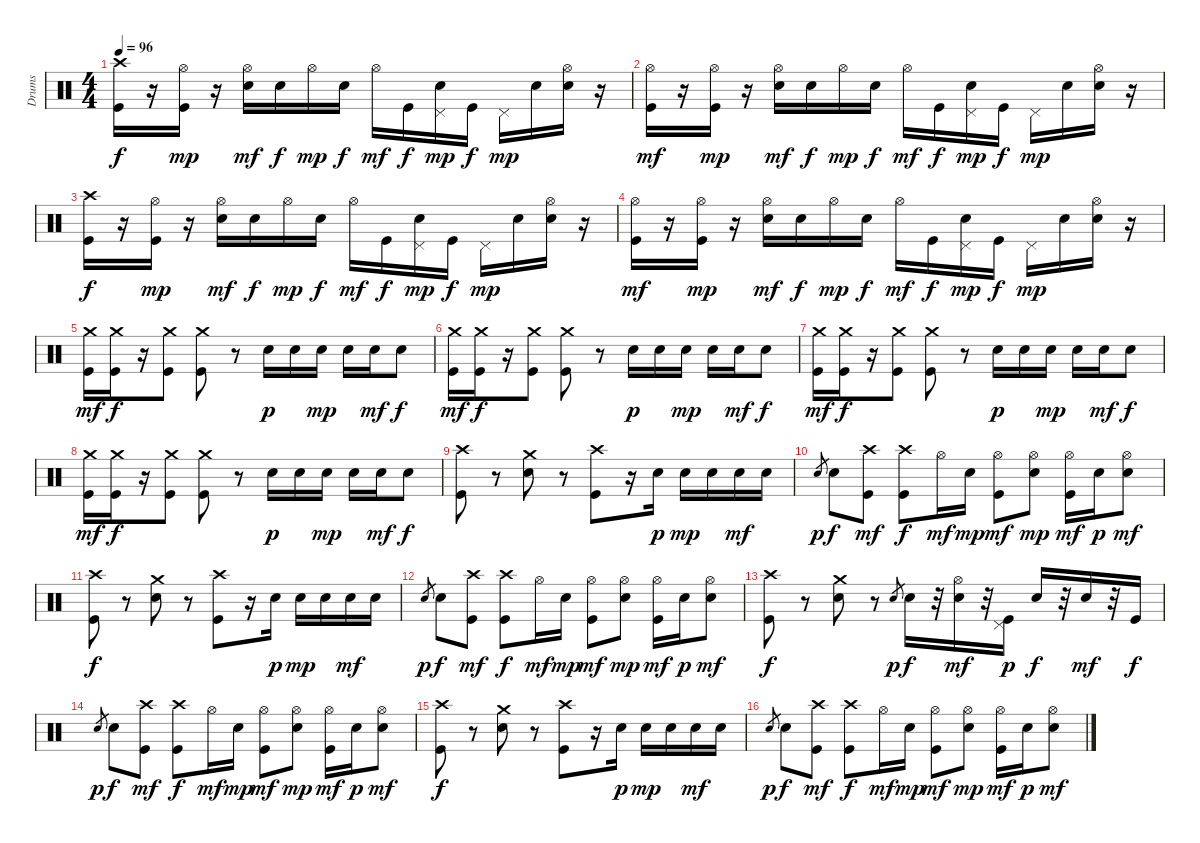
\track ("Drums" "Drums") {instrument percussion}
\staff {score}
\articulation defaults
\ts (4 4)
\tempo 96
\clef neutral
\ks c
("Crash high (hit)" "Kick (hit)").16{dy f} r.16 ("Hi-Hat (open)" "Kick (hit)").16{dy mp} r.16 ("Hi-Hat (open)" "Snare (hit) 2").16{dy mf} "Snare (hit) 2".16{dy f} "Hi-Hat (open)".16{dy mp} "Snare (hit) 2".16{dy f} "Hi-Hat (open)".16{dy mf} "Kick (hit)".16{dy f} ("Pedal Hi-Hat (hit)" "Snare (hit) 2").16{dy mp} "Kick (hit)".16{dy f} "Pedal Hi-Hat (hit)".16{dy mp} "Snare (hit) 2".16 ("Hi-Hat (open)" "Snare (hit) 2").16 r.16 |
("Hi-Hat (open)" "Kick (hit)").16{dy mf} r.16 ("Hi-Hat (open)" "Kick (hit)").16{dy mp} r.16 ("Hi-Hat (open)" "Snare (hit) 2").16{dy mf} "Snare (hit) 2".16{dy f} "Hi-Hat (open)".16{dy mp} "Snare (hit) 2".16{dy f} "Hi-Hat (open)".16{dy mf} "Kick (hit)".16{dy f} ("Pedal Hi-Hat (hit)" "Snare (hit) 2").16{dy mp} "Kick (hit)".16{dy f} "Pedal Hi-Hat (hit)".16{dy mp} "Snare (hit) 2".16 ("Hi-Hat (open)" "Snare (hit) 2").16 r.16 |
("Crash high (hit)" "Kick (hit)").16{dy f} r.16 ("Hi-Hat (open)" "Kick (hit)").16{dy mp} r.16 ("Hi-Hat (open)" "Snare (hit) 2").16{dy mf} "Snare (hit) 2".16{dy f} "Hi-Hat (open)".16{dy mp} "Snare (hit) 2".16{dy f} "Hi-Hat (open)".16{dy mf} "Kick (hit)".16{dy f} ("Pedal Hi-Hat (hit)" "Snare (hit) 2").16{dy mp} "Kick (hit)".16{dy f} "Pedal Hi-Hat (hit)".16{dy mp} "Snare (hit) 2".16 ("Hi-Hat (open)" "Snare (hit) 2").16 r.16 |
("Hi-Hat (open)" "Kick (hit)").16{dy mf} r.16 ("Hi-Hat (open)" "Kick (hit)").16{dy mp} r.16 ("Hi-Hat (open)" "Snare (hit) 2").16{dy mf} "Snare (hit) 2".16{dy f} "Hi-Hat (open)".16{dy mp} "Snare (hit) 2".16{dy f} "Hi-Hat (open)".16{dy mf} "Kick (hit)".16{dy f} ("Pedal Hi-Hat (hit)" "Snare (hit) 2").16{dy mp} "Kick (hit)".16{dy f} "Pedal Hi-Hat (hit)".16{dy mp} "Snare (hit) 2".16 ("Hi-Hat (open)" "Snare (hit) 2").16 r.16 |
("Crash medium (hit)" "Kick (hit)").16{dy mf} ("Crash medium (hit)" "Kick (hit)").16{dy f} r.16 ("Crash medium (hit)" "Kick (hit)").8 ("Crash medium (hit)" "Kick (hit)").8 r.8 "Snare (hit) 2".16{dy p} "Snare (hit) 2".16 "Snare (hit) 2".16{dy mp} "Snare (hit) 2".16 "Snare (hit) 2".16{dy mf} "Snare (hit) 2".8{dy f} |
("Crash medium (hit)" "Kick (hit)").16{dy mf} ("Crash medium (hit)" "Kick (hit)").16{dy f} r.16 ("Crash medium (hit)" "Kick (hit)").8 ("Crash medium (hit)" "Kick (hit)").8 r.8 "Snare (hit) 2".16{dy p} "Snare (hit) 2".16 "Snare (hit) 2".16{dy mp} "Snare (hit) 2".16 "Snare (hit) 2".16{dy mf} "Snare (hit) 2".8{dy f} |
("Crash medium (hit)" "Kick (hit)").16{dy mf} ("Crash medium (hit)" "Kick (hit)").16{dy f} r.16 ("Crash medium (hit)" "Kick (hit)").8 ("Crash medium (hit)" "Kick (hit)").8 r.8 "Snare (hit) 2".16{dy p} "Snare (hit) 2".16 "Snare (hit) 2".16{dy mp} "Snare (hit) 2".16 "Snare (hit) 2".16{dy mf} "Snare (hit) 2".8{dy f} |
("Crash medium (hit)" "Kick (hit)").16{dy mf} ("Crash medium (hit)" "Kick (hit)").16{dy f} r.16 ("Crash medium (hit)" "Kick (hit)").8 ("Crash medium (hit)" "Kick (hit)").8 r.8 "Snare (hit) 2".16{dy p} "Snare (hit) 2".16 "Snare (hit) 2".16{dy mp} "Snare (hit) 2".16 "Snare (hit) 2".16{dy mf} "Snare (hit) 2".8{dy f} |
("Crash high (hit)" "Kick (hit)").8 r.8 ("Crash medium (hit)" "Snare (hit) 2").8 r.8 ("Crash high (hit)" "Kick (hit)").8 r.16 "Snare (hit) 2".16{dy p} "Snare (hit) 2".16{dy mp} "Snare (hit) 2".16 "Snare (hit) 2".16{dy mf} "Snare (hit) 2".16 |
"Snare (hit) 2".8{gr dy p} "Snare (hit) 2".8{dy f} ("Crash high (hit)" "Kick (hit)").8{dy mf} ("Crash high (hit)" "Kick (hit)").8{dy f} "Hi-Hat (open)".16{dy mf} "Snare (hit) 2".16{dy mp} ("Hi-Hat (open)" "Kick (hit)").8{dy mf} ("Hi-Hat (open)" "Snare (hit) 2").8{dy mp} ("Hi-Hat (open)" "Kick (hit)").16{dy mf} "Snare (hit) 2".16{dy p} ("Hi-Hat (open)" "Snare (hit) 2").8{dy mf} |
("Crash high (hit)" "Kick (hit)").8{dy f} r.8 ("Crash medium (hit)" "Snare (hit) 2").8 r.8 ("Crash high (hit)" "Kick (hit)").8 r.16 "Snare (hit) 2".16{dy p} "Snare (hit) 2".16{dy mp} "Snare (hit) 2".16 "Snare (hit) 2".16{dy mf} "Snare (hit) 2".16 |
"Snare (hit) 2".8{gr dy p} "Snare (hit) 2".8{dy f} ("Crash high (hit)" "Kick (hit)").8{dy mf} ("Crash high (hit)" "Kick (hit)").8{dy f} "Hi-Hat (open)".16{dy mf} "Snare (hit) 2".16{dy mp} ("Hi-Hat (open)" "Kick (hit)").8{dy mf} ("Hi-Hat (open)" "Snare (hit) 2").8{dy mp} ("Hi-Hat (open)" "Kick (hit)").16{dy mf} "Snare (hit) 2".16{dy p} ("Hi-Hat (open)" "Snare (hit) 2").8{dy mf} |
("Crash high (hit)" "Kick (hit)").8{dy f} r.8 ("Crash medium (hit)" "Snare (hit) 2").8 r.8 "Snare (hit) 2".8{gr dy p} "Snare (hit) 2".16{dy f} r.32 ("Hi-Hat (open)" "Snare (hit) 2").16{dy mf} r.32 ("Pedal Hi-Hat (hit)" "Kick (hit)").16{dy p} "Snare (hit) 2".16{dy f} r.32 "Snare (hit) 2".16{dy mf} r.32 "Kick (hit)".16{dy f} |
"Snare (hit) 2".8{gr dy p} "Snare (hit) 2".8{dy f} ("Crash high (hit)" "Kick (hit)").8{dy mf} ("Crash high (hit)" "Kick (hit)").8{dy f} "Hi-Hat (open)".16{dy mf} "Snare (hit) 2".16{dy mp} ("Hi-Hat (open)" "Kick (hit)").8{dy mf} ("Hi-Hat (open)" "Snare (hit) 2").8{dy mp} ("Hi-Hat (open)" "Kick (hit)").16{dy mf} "Snare (hit) 2".16{dy p} ("Hi-Hat (open)" "Snare (hit) 2").8{dy mf} |
("Crash high (hit)" "Kick (hit)").8{dy f} r.8 ("Crash medium (hit)" "Snare (hit) 2").8 r.8 ("Crash high (hit)" "Kick (hit)").8 r.16 "Snare (hit) 2".16{dy p} "Snare (hit) 2".16{dy mp} "Snare (hit) 2".16 "Snare (hit) 2".16{dy mf} "Snare (hit) 2".16 |
"Snare (hit) 2".8{gr dy p} "Snare (hit) 2".8{dy f} ("Crash high (hit)" "Kick (hit)").8{dy mf} ("Crash high (hit)" "Kick (hit)").8{dy f} "Hi-Hat (open)".16{dy mf} "Snare (hit) 2".16{dy mp} ("Hi-Hat (open)" "Kick (hit)").8{dy mf} ("Hi-Hat (open)" "Snare (hit) 2").8{dy mp} ("Hi-Hat (open)" "Kick (hit)").16{dy mf} "Snare (hit) 2".16{dy p} ("Hi-Hat (open)" "Snare (hit) 2").8{dy mf}
